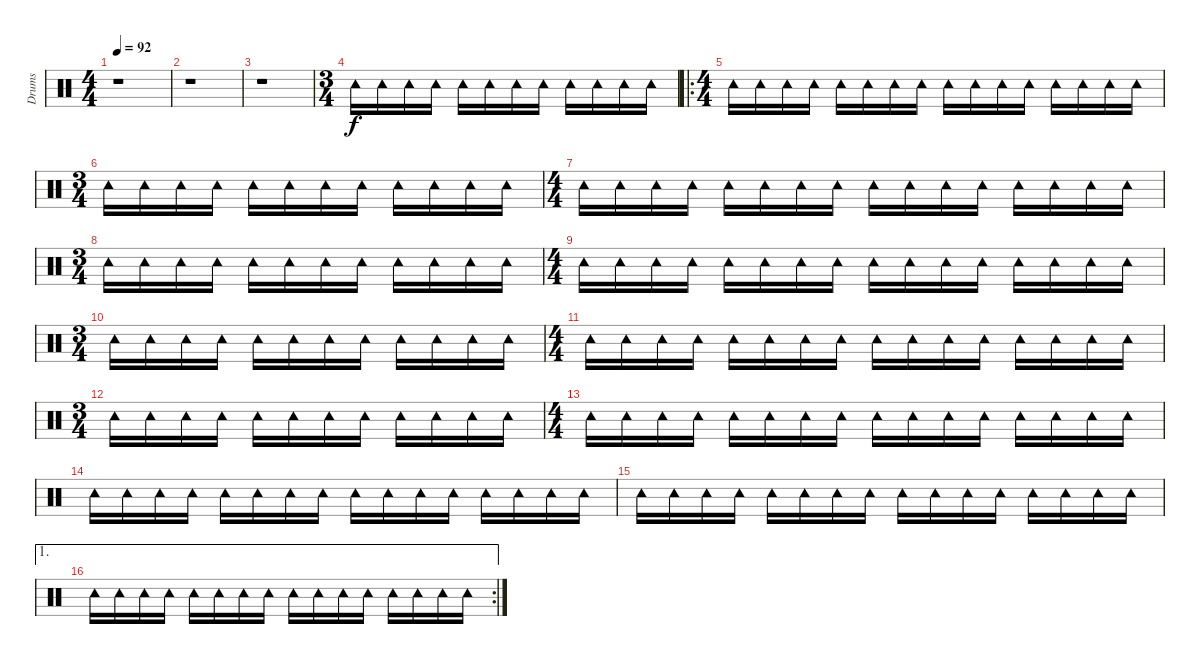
\track ("Drums" "Drums") {instrument percussion}
\staff {score}
\articulation defaults
\ts (4 4)
\tempo 92
\clef neutral
\ks c
r.1{dy f} |
r.1 |
r.1 |
\ts (3 4)
"Tambourine (hit)".16 "Tambourine (hit)".16 "Tambourine (hit)".16 "Tambourine (hit)".16 "Tambourine (hit)".16 "Tambourine (hit)".16 "Tambourine (hit)".16 "Tambourine (hit)".16 "Tambourine (hit)".16 "Tambourine (hit)".16 "Tambourine (hit)".16 "Tambourine (hit)".16 |
\ro
\ts (4 4)
"Tambourine (hit)".16 "Tambourine (hit)".16 "Tambourine (hit)".16 "Tambourine (hit)".16 "Tambourine (hit)".16 "Tambourine (hit)".16 "Tambourine (hit)".16 "Tambourine (hit)".16 "Tambourine (hit)".16 "Tambourine (hit)".16 "Tambourine (hit)".16 "Tambourine (hit)".16 "Tambourine (hit)".16 "Tambourine (hit)".16 "Tambourine (hit)".16 "Tambourine (hit)".16 |
\ts (3 4)
"Tambourine (hit)".16 "Tambourine (hit)".16 "Tambourine (hit)".16 "Tambourine (hit)".16 "Tambourine (hit)".16 "Tambourine (hit)".16 "Tambourine (hit)".16 "Tambourine (hit)".16 "Tambourine (hit)".16 "Tambourine (hit)".16 "Tambourine (hit)".16 "Tambourine (hit)".16 |
\ts (4 4)
"Tambourine (hit)".16 "Tambourine (hit)".16 "Tambourine (hit)".16 "Tambourine (hit)".16 "Tambourine (hit)".16 "Tambourine (hit)".16 "Tambourine (hit)".16 "Tambourine (hit)".16 "Tambourine (hit)".16 "Tambourine (hit)".16 "Tambourine (hit)".16 "Tambourine (hit)".16 "Tambourine (hit)".16 "Tambourine (hit)".16 "Tambourine (hit)".16 "Tambourine (hit)".16 |
\ts (3 4)
"Tambourine (hit)".16 "Tambourine (hit)".16 "Tambourine (hit)".16 "Tambourine (hit)".16 "Tambourine (hit)".16 "Tambourine (hit)".16 "Tambourine (hit)".16 "Tambourine (hit)".16 "Tambourine (hit)".16 "Tambourine (hit)".16 "Tambourine (hit)".16 "Tambourine (hit)".16 |
\ts (4 4)
"Tambourine (hit)".16 "Tambourine (hit)".16 "Tambourine (hit)".16 "Tambourine (hit)".16 "Tambourine (hit)".16 "Tambourine (hit)".16 "Tambourine (hit)".16 "Tambourine (hit)".16 "Tambourine (hit)".16 "Tambourine (hit)".16 "Tambourine (hit)".16 "Tambourine (hit)".16 "Tambourine (hit)".16 "Tambourine (hit)".16 "Tambourine (hit)".16 "Tambourine (hit)".16 |
\ts (3 4)
"Tambourine (hit)".16 "Tambourine (hit)".16 "Tambourine (hit)".16 "Tambourine (hit)".16 "Tambourine (hit)".16 "Tambourine (hit)".16 "Tambourine (hit)".16 "Tambourine (hit)".16 "Tambourine (hit)".16 "Tambourine (hit)".16 "Tambourine (hit)".16 "Tambourine (hit)".16 |
\ts (4 4)
"Tambourine (hit)".16 "Tambourine (hit)".16 "Tambourine (hit)".16 "Tambourine (hit)".16 "Tambourine (hit)".16 "Tambourine (hit)".16 "Tambourine (hit)".16 "Tambourine (hit)".16 "Tambourine (hit)".16 "Tambourine (hit)".16 "Tambourine (hit)".16 "Tambourine (hit)".16 "Tambourine (hit)".16 "Tambourine (hit)".16 "Tambourine (hit)".16 "Tambourine (hit)".16 |
\ts (3 4)
"Tambourine (hit)".16 "Tambourine (hit)".16 "Tambourine (hit)".16 "Tambourine (hit)".16 "Tambourine (hit)".16 "Tambourine (hit)".16 "Tambourine (hit)".16 "Tambourine (hit)".16 "Tambourine (hit)".16 "Tambourine (hit)".16 "Tambourine (hit)".16 "Tambourine (hit)".16 |
\ts (4 4)
"Tambourine (hit)".16 "Tambourine (hit)".16 "Tambourine (hit)".16 "Tambourine (hit)".16 "Tambourine (hit)".16 "Tambourine (hit)".16 "Tambourine (hit)".16 "Tambourine (hit)".16 "Tambourine (hit)".16 "Tambourine (hit)".16 "Tambourine (hit)".16 "Tambourine (hit)".16 "Tambourine (hit)".16 "Tambourine (hit)".16 "Tambourine (hit)".16 "Tambourine (hit)".16 |
"Tambourine (hit)".16 "Tambourine (hit)".16 "Tambourine (hit)".16 "Tambourine (hit)".16 "Tambourine (hit)".16 "Tambourine (hit)".16 "Tambourine (hit)".16 "Tambourine (hit)".16 "Tambourine (hit)".16 "Tambourine (hit)".16 "Tambourine (hit)".16 "Tambourine (hit)".16 "Tambourine (hit)".16 "Tambourine (hit)".16 "Tambourine (hit)".16 "Tambourine (hit)".16 |
"Tambourine (hit)".16 "Tambourine (hit)".16 "Tambourine (hit)".16 "Tambourine (hit)".16 "Tambourine (hit)".16 "Tambourine (hit)".16 "Tambourine (hit)".16 "Tambourine (hit)".16 "Tambourine (hit)".16 "Tambourine (hit)".16 "Tambourine (hit)".16 "Tambourine (hit)".16 "Tambourine (hit)".16 "Tambourine (hit)".16 "Tambourine (hit)".16 "Tambourine (hit)".16 |
\ae 1
\rc 2 "Tambourine (hit)".16 "Tambourine (hit)".16 "Tambourine (hit)".16 "Tambourine (hit)".16 "Tambourine (hit)".16 "Tambourine (hit)".16 "Tambourine (hit)".16 "Tambourine (hit)".16 "Tambourine (hit)".16 "Tambourine (hit)".16 "Tambourine (hit)".16 "Tambourine (hit)".16 "Tambourine (hit)".16 "Tambourine (hit)".16 "Tambourine (hit)".16 "Tambourine (hit)".16
